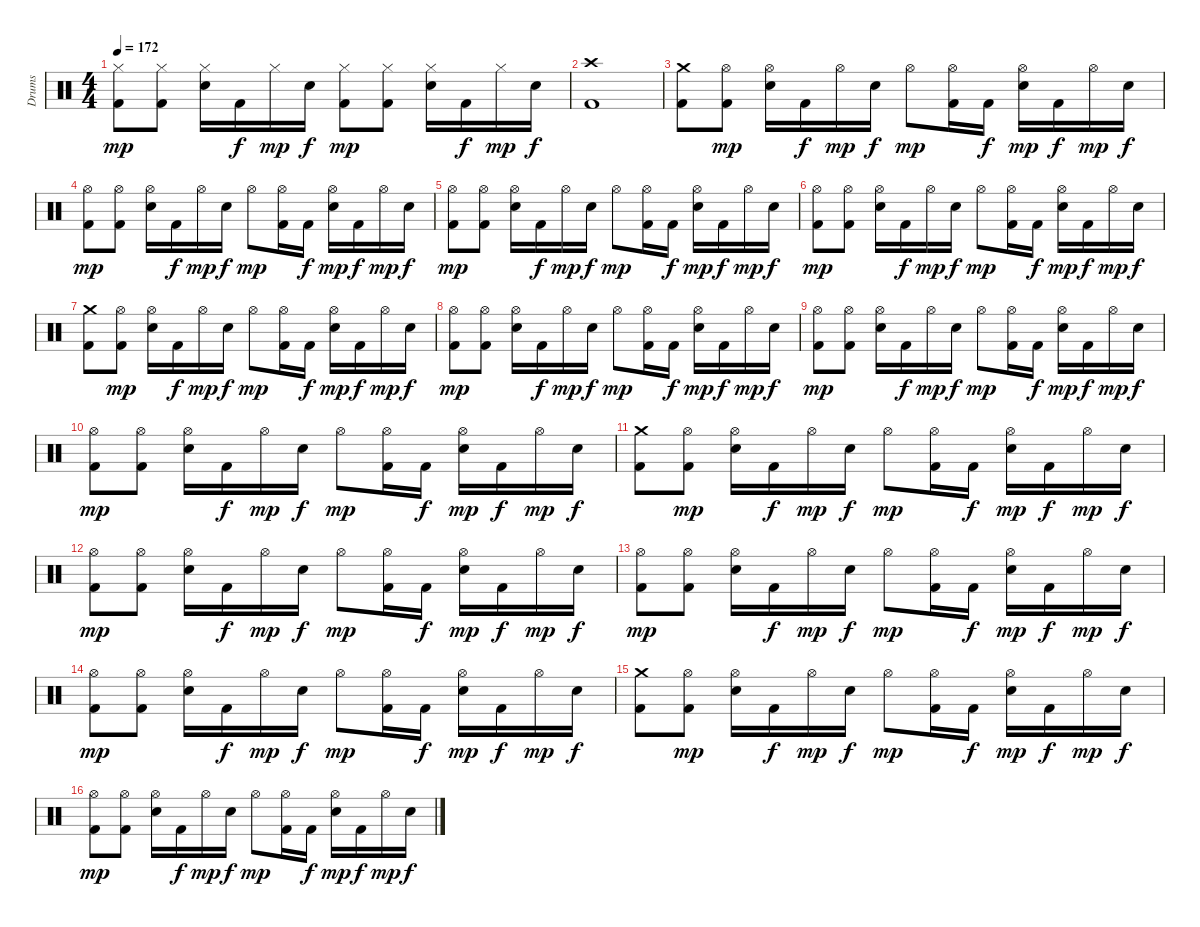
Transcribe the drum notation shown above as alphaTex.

\track ("Drums" "Drums") {instrument percussion}
\staff {score}
\articulation defaults
\ts (4 4)
\tempo 172
\clef neutral
\ks c
("Hi-Hat (closed)" "Kick (hit) 2").8{dy mp} ("Hi-Hat (closed)" "Kick (hit) 2").8 ("Hi-Hat (closed)" "Snare (hit) 2").16 "Kick (hit) 2".16{dy f} "Hi-Hat (closed)".16{dy mp} "Snare (hit) 2".16{dy f} ("Hi-Hat (closed)" "Kick (hit) 2").8{dy mp} ("Hi-Hat (closed)" "Kick (hit) 2").8 ("Hi-Hat (closed)" "Snare (hit) 2").16 "Kick (hit) 2".16{dy f} "Hi-Hat (closed)".16{dy mp} "Snare (hit) 2".16{dy f} |
("Crash high (hit)" "Kick (hit) 2").1 |
("Crash medium (hit)" "Kick (hit) 2").8 ("Hi-Hat (open)" "Kick (hit) 2").8{dy mp} ("Hi-Hat (open)" "Snare (hit) 2").16 "Kick (hit) 2".16{dy f} "Hi-Hat (open)".16{dy mp} "Snare (hit) 2".16{dy f} "Hi-Hat (open)".8{dy mp} ("Hi-Hat (open)" "Kick (hit) 2").16 "Kick (hit) 2".16{dy f} ("Hi-Hat (open)" "Snare (hit) 2").16{dy mp} "Kick (hit) 2".16{dy f} "Hi-Hat (open)".16{dy mp} "Snare (hit) 2".16{dy f} |
("Hi-Hat (open)" "Kick (hit) 2").8{dy mp} ("Hi-Hat (open)" "Kick (hit) 2").8 ("Hi-Hat (open)" "Snare (hit) 2").16 "Kick (hit) 2".16{dy f} "Hi-Hat (open)".16{dy mp} "Snare (hit) 2".16{dy f} "Hi-Hat (open)".8{dy mp} ("Hi-Hat (open)" "Kick (hit) 2").16 "Kick (hit) 2".16{dy f} ("Hi-Hat (open)" "Snare (hit) 2").16{dy mp} "Kick (hit) 2".16{dy f} "Hi-Hat (open)".16{dy mp} "Snare (hit) 2".16{dy f} |
("Hi-Hat (open)" "Kick (hit) 2").8{dy mp} ("Hi-Hat (open)" "Kick (hit) 2").8 ("Hi-Hat (open)" "Snare (hit) 2").16 "Kick (hit) 2".16{dy f} "Hi-Hat (open)".16{dy mp} "Snare (hit) 2".16{dy f} "Hi-Hat (open)".8{dy mp} ("Hi-Hat (open)" "Kick (hit) 2").16 "Kick (hit) 2".16{dy f} ("Hi-Hat (open)" "Snare (hit) 2").16{dy mp} "Kick (hit) 2".16{dy f} "Hi-Hat (open)".16{dy mp} "Snare (hit) 2".16{dy f} |
("Hi-Hat (open)" "Kick (hit) 2").8{dy mp} ("Hi-Hat (open)" "Kick (hit) 2").8 ("Hi-Hat (open)" "Snare (hit) 2").16 "Kick (hit) 2".16{dy f} "Hi-Hat (open)".16{dy mp} "Snare (hit) 2".16{dy f} "Hi-Hat (open)".8{dy mp} ("Hi-Hat (open)" "Kick (hit) 2").16 "Kick (hit) 2".16{dy f} ("Hi-Hat (open)" "Snare (hit) 2").16{dy mp} "Kick (hit) 2".16{dy f} "Hi-Hat (open)".16{dy mp} "Snare (hit) 2".16{dy f} |
("Crash medium (hit)" "Kick (hit) 2").8 ("Hi-Hat (open)" "Kick (hit) 2").8{dy mp} ("Hi-Hat (open)" "Snare (hit) 2").16 "Kick (hit) 2".16{dy f} "Hi-Hat (open)".16{dy mp} "Snare (hit) 2".16{dy f} "Hi-Hat (open)".8{dy mp} ("Hi-Hat (open)" "Kick (hit) 2").16 "Kick (hit) 2".16{dy f} ("Hi-Hat (open)" "Snare (hit) 2").16{dy mp} "Kick (hit) 2".16{dy f} "Hi-Hat (open)".16{dy mp} "Snare (hit) 2".16{dy f} |
("Hi-Hat (open)" "Kick (hit) 2").8{dy mp} ("Hi-Hat (open)" "Kick (hit) 2").8 ("Hi-Hat (open)" "Snare (hit) 2").16 "Kick (hit) 2".16{dy f} "Hi-Hat (open)".16{dy mp} "Snare (hit) 2".16{dy f} "Hi-Hat (open)".8{dy mp} ("Hi-Hat (open)" "Kick (hit) 2").16 "Kick (hit) 2".16{dy f} ("Hi-Hat (open)" "Snare (hit) 2").16{dy mp} "Kick (hit) 2".16{dy f} "Hi-Hat (open)".16{dy mp} "Snare (hit) 2".16{dy f} |
("Hi-Hat (open)" "Kick (hit) 2").8{dy mp} ("Hi-Hat (open)" "Kick (hit) 2").8 ("Hi-Hat (open)" "Snare (hit) 2").16 "Kick (hit) 2".16{dy f} "Hi-Hat (open)".16{dy mp} "Snare (hit) 2".16{dy f} "Hi-Hat (open)".8{dy mp} ("Hi-Hat (open)" "Kick (hit) 2").16 "Kick (hit) 2".16{dy f} ("Hi-Hat (open)" "Snare (hit) 2").16{dy mp} "Kick (hit) 2".16{dy f} "Hi-Hat (open)".16{dy mp} "Snare (hit) 2".16{dy f} |
("Hi-Hat (open)" "Kick (hit) 2").8{dy mp} ("Hi-Hat (open)" "Kick (hit) 2").8 ("Hi-Hat (open)" "Snare (hit) 2").16 "Kick (hit) 2".16{dy f} "Hi-Hat (open)".16{dy mp} "Snare (hit) 2".16{dy f} "Hi-Hat (open)".8{dy mp} ("Hi-Hat (open)" "Kick (hit) 2").16 "Kick (hit) 2".16{dy f} ("Hi-Hat (open)" "Snare (hit) 2").16{dy mp} "Kick (hit) 2".16{dy f} "Hi-Hat (open)".16{dy mp} "Snare (hit) 2".16{dy f} |
("Crash medium (hit)" "Kick (hit) 2").8 ("Hi-Hat (open)" "Kick (hit) 2").8{dy mp} ("Hi-Hat (open)" "Snare (hit) 2").16 "Kick (hit) 2".16{dy f} "Hi-Hat (open)".16{dy mp} "Snare (hit) 2".16{dy f} "Hi-Hat (open)".8{dy mp} ("Hi-Hat (open)" "Kick (hit) 2").16 "Kick (hit) 2".16{dy f} ("Hi-Hat (open)" "Snare (hit) 2").16{dy mp} "Kick (hit) 2".16{dy f} "Hi-Hat (open)".16{dy mp} "Snare (hit) 2".16{dy f} |
("Hi-Hat (open)" "Kick (hit) 2").8{dy mp} ("Hi-Hat (open)" "Kick (hit) 2").8 ("Hi-Hat (open)" "Snare (hit) 2").16 "Kick (hit) 2".16{dy f} "Hi-Hat (open)".16{dy mp} "Snare (hit) 2".16{dy f} "Hi-Hat (open)".8{dy mp} ("Hi-Hat (open)" "Kick (hit) 2").16 "Kick (hit) 2".16{dy f} ("Hi-Hat (open)" "Snare (hit) 2").16{dy mp} "Kick (hit) 2".16{dy f} "Hi-Hat (open)".16{dy mp} "Snare (hit) 2".16{dy f} |
("Hi-Hat (open)" "Kick (hit) 2").8{dy mp} ("Hi-Hat (open)" "Kick (hit) 2").8 ("Hi-Hat (open)" "Snare (hit) 2").16 "Kick (hit) 2".16{dy f} "Hi-Hat (open)".16{dy mp} "Snare (hit) 2".16{dy f} "Hi-Hat (open)".8{dy mp} ("Hi-Hat (open)" "Kick (hit) 2").16 "Kick (hit) 2".16{dy f} ("Hi-Hat (open)" "Snare (hit) 2").16{dy mp} "Kick (hit) 2".16{dy f} "Hi-Hat (open)".16{dy mp} "Snare (hit) 2".16{dy f} |
("Hi-Hat (open)" "Kick (hit) 2").8{dy mp} ("Hi-Hat (open)" "Kick (hit) 2").8 ("Hi-Hat (open)" "Snare (hit) 2").16 "Kick (hit) 2".16{dy f} "Hi-Hat (open)".16{dy mp} "Snare (hit) 2".16{dy f} "Hi-Hat (open)".8{dy mp} ("Hi-Hat (open)" "Kick (hit) 2").16 "Kick (hit) 2".16{dy f} ("Hi-Hat (open)" "Snare (hit) 2").16{dy mp} "Kick (hit) 2".16{dy f} "Hi-Hat (open)".16{dy mp} "Snare (hit) 2".16{dy f} |
("Crash medium (hit)" "Kick (hit) 2").8 ("Hi-Hat (open)" "Kick (hit) 2").8{dy mp} ("Hi-Hat (open)" "Snare (hit) 2").16 "Kick (hit) 2".16{dy f} "Hi-Hat (open)".16{dy mp} "Snare (hit) 2".16{dy f} "Hi-Hat (open)".8{dy mp} ("Hi-Hat (open)" "Kick (hit) 2").16 "Kick (hit) 2".16{dy f} ("Hi-Hat (open)" "Snare (hit) 2").16{dy mp} "Kick (hit) 2".16{dy f} "Hi-Hat (open)".16{dy mp} "Snare (hit) 2".16{dy f} |
("Hi-Hat (open)" "Kick (hit) 2").8{dy mp} ("Hi-Hat (open)" "Kick (hit) 2").8 ("Hi-Hat (open)" "Snare (hit) 2").16 "Kick (hit) 2".16{dy f} "Hi-Hat (open)".16{dy mp} "Snare (hit) 2".16{dy f} "Hi-Hat (open)".8{dy mp} ("Hi-Hat (open)" "Kick (hit) 2").16 "Kick (hit) 2".16{dy f} ("Hi-Hat (open)" "Snare (hit) 2").16{dy mp} "Kick (hit) 2".16{dy f} "Hi-Hat (open)".16{dy mp} "Snare (hit) 2".16{dy f}
